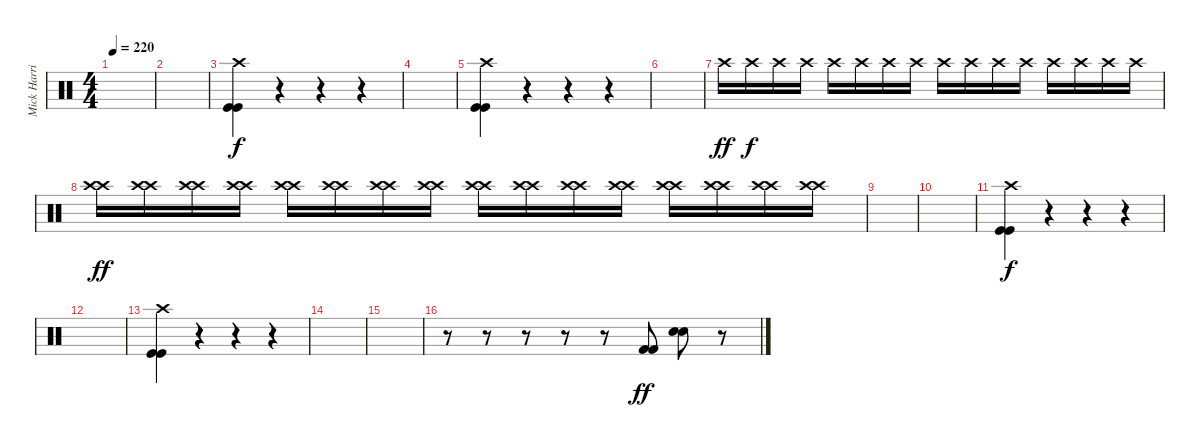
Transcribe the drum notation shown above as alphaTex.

\track ("Mick Harris" "Mick Harri") {instrument percussion}
\staff {score}
\articulation defaults
\ts (4 4)
\tempo 220
\clef neutral
\ks c
|
|
("Crash high (hit)" "Kick (hit)" "Kick (hit)").4 r.4 r.4 r.4 |
|
("Crash high (hit)" "Kick (hit)" "Kick (hit)").4 r.4 r.4 r.4 |
|
"Crash high (hit)".16{dy ff} "Crash high (hit)".16{dy f} "Crash high (hit)".16 "Crash high (hit)".16 "Crash high (hit)".16 "Crash high (hit)".16 "Crash high (hit)".16 "Crash high (hit)".16 "Crash high (hit)".16 "Crash high (hit)".16 "Crash high (hit)".16 "Crash high (hit)".16 "Crash high (hit)".16 "Crash high (hit)".16 "Crash high (hit)".16 "Crash high (hit)".16 |
("Crash high (hit)" "Crash high (hit)").16{dy ff} ("Crash high (hit)" "Crash high (hit)").16 ("Crash high (hit)" "Crash high (hit)").16 ("Crash high (hit)" "Crash high (hit)").16 ("Crash high (hit)" "Crash high (hit)").16 ("Crash high (hit)" "Crash high (hit)").16 ("Crash high (hit)" "Crash high (hit)").16 ("Crash high (hit)" "Crash high (hit)").16 ("Crash high (hit)" "Crash high (hit)").16 ("Crash high (hit)" "Crash high (hit)").16 ("Crash high (hit)" "Crash high (hit)").16 ("Crash high (hit)" "Crash high (hit)").16 ("Crash high (hit)" "Crash high (hit)").16 ("Crash high (hit)" "Crash high (hit)").16 ("Crash high (hit)" "Crash high (hit)").16 ("Crash high (hit)" "Crash high (hit)").16 |
|
|
("Crash high (hit)" "Kick (hit)" "Kick (hit)").4{dy f} r.4 r.4 r.4 |
|
("Crash high (hit)" "Kick (hit)" "Kick (hit)").4 r.4 r.4 r.4 |
|
|
r.8 r.8 r.8 r.8 r.8 ("Kick (hit) 2" "Kick (hit) 2").8{dy ff} ("Snare (hit) 2" "Snare (hit) 2").8 r.8
